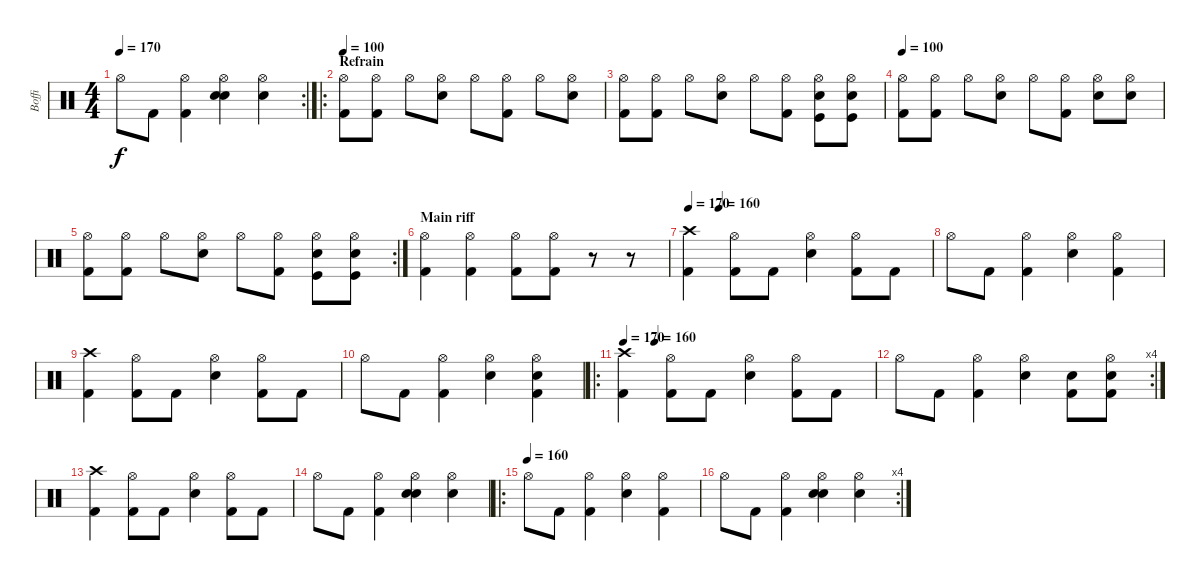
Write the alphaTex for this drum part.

\track ("Boffi" "Boffi") {instrument percussion}
\staff {score}
\articulation defaults
\rc 2
\ts (4 4)
\tempo 170
\clef neutral
\ks c "Hi-Hat (open)".8{dy f} "Kick (hit) 2".8
("Hi-Hat (open)" "Kick (hit) 2").4 ("Hi-Hat (open)" "Electric Snare (hit)" "Snare (hit) 2").4 ("Hi-Hat (open)" "Snare (hit) 2").4 |
\ro
\section ("" "Refrain")
\tempo 90
\tempo 100
("Hi-Hat (open)" "Kick (hit) 2").8 ("Hi-Hat (open)" "Kick (hit) 2").8 "Hi-Hat (open)".8 ("Hi-Hat (open)" "Electric Snare (hit)").8 "Hi-Hat (open)".8 ("Hi-Hat (open)" "Kick (hit) 2").8 "Hi-Hat (open)".8 ("Hi-Hat (open)" "Electric Snare (hit)").8 |
("Hi-Hat (open)" "Kick (hit) 2").8 ("Hi-Hat (open)" "Kick (hit) 2").8 "Hi-Hat (open)".8 ("Hi-Hat (open)" "Electric Snare (hit)").8 "Hi-Hat (open)".8 ("Hi-Hat (open)" "Kick (hit) 2").8 ("Hi-Hat (open)" "Electric Snare (hit)" "Kick (hit)").8 ("Hi-Hat (open)" "Electric Snare (hit)" "Kick (hit)").8 |
\tempo 100
("Hi-Hat (open)" "Kick (hit) 2").8 ("Hi-Hat (open)" "Kick (hit) 2").8 "Hi-Hat (open)".8 ("Hi-Hat (open)" "Electric Snare (hit)").8 "Hi-Hat (open)".8 ("Hi-Hat (open)" "Kick (hit) 2").8 ("Hi-Hat (open)" "Electric Snare (hit)").8 ("Hi-Hat (open)" "Electric Snare (hit)").8 |
\rc 2
("Hi-Hat (open)" "Kick (hit) 2").8 ("Hi-Hat (open)" "Kick (hit) 2").8 "Hi-Hat (open)".8 ("Hi-Hat (open)" "Electric Snare (hit)").8 "Hi-Hat (open)".8 ("Hi-Hat (open)" "Kick (hit) 2").8 ("Hi-Hat (open)" "Snare (hit) 2" "Kick (hit)").8 ("Hi-Hat (open)" "Snare (hit) 2" "Kick (hit)").8 |
\section ("" "Main riff")
("Hi-Hat (open)" "Kick (hit) 2").4 ("Hi-Hat (open)" "Kick (hit) 2").4 ("Hi-Hat (open)" "Kick (hit) 2").8 ("Hi-Hat (open)" "Kick (hit) 2").8 r.8 r.8 |
\tempo 170
\tempo (160 0.125)
("Crash high (hit)" "Kick (hit) 2").4 ("Hi-Hat (open)" "Kick (hit) 2").8 "Kick (hit) 2".8 ("Hi-Hat (open)" "Electric Snare (hit)").4 ("Hi-Hat (open)" "Kick (hit) 2").8 "Kick (hit) 2".8 |
"Hi-Hat (open)".8 "Kick (hit) 2".8 ("Hi-Hat (open)" "Kick (hit) 2").4 ("Hi-Hat (open)" "Electric Snare (hit)").4 ("Hi-Hat (open)" "Kick (hit) 2").4 |
("Crash high (hit)" "Kick (hit) 2").4 ("Hi-Hat (open)" "Kick (hit) 2").8 "Kick (hit) 2".8 ("Hi-Hat (open)" "Electric Snare (hit)").4 ("Hi-Hat (open)" "Kick (hit) 2").8 "Kick (hit) 2".8 |
"Hi-Hat (open)".8 "Kick (hit) 2".8 ("Hi-Hat (open)" "Kick (hit) 2").4 ("Hi-Hat (open)" "Snare (hit) 2").4 ("Hi-Hat (open)" "Snare (hit) 2" "Kick (hit) 2").4 |
\ro
\tempo 170
\tempo (160 0.125)
("Crash high (hit)" "Kick (hit) 2").4 ("Hi-Hat (open)" "Kick (hit) 2").8 "Kick (hit) 2".8 ("Hi-Hat (open)" "Electric Snare (hit)").4 ("Hi-Hat (open)" "Kick (hit) 2").8 "Kick (hit) 2".8 |
\rc 4 "Hi-Hat (open)".8 "Kick (hit) 2".8
("Hi-Hat (open)" "Kick (hit) 2").4 ("Hi-Hat (open)" "Electric Snare (hit)").4 ("Snare (hit) 2" "Kick (hit) 2").8 ("Hi-Hat (open)" "Snare (hit) 2" "Kick (hit) 2").8 |
("Crash high (hit)" "Kick (hit) 2").4 ("Hi-Hat (open)" "Kick (hit) 2").8 "Kick (hit) 2".8 ("Hi-Hat (open)" "Electric Snare (hit)").4 ("Hi-Hat (open)" "Kick (hit) 2").8 "Kick (hit) 2".8 |
"Hi-Hat (open)".8 "Kick (hit) 2".8 ("Hi-Hat (open)" "Kick (hit) 2").4 ("Hi-Hat (open)" "Electric Snare (hit)" "Snare (hit) 2").4 ("Hi-Hat (open)" "Snare (hit) 2").4 |
\ro
\tempo (160)
"Hi-Hat (open)".8 "Kick (hit) 2".8 ("Hi-Hat (open)" "Kick (hit) 2").4 ("Hi-Hat (open)" "Electric Snare (hit)").4 ("Hi-Hat (open)" "Kick (hit) 2").4 |
\rc 4 "Hi-Hat (open)".8 "Kick (hit) 2".8
("Hi-Hat (open)" "Kick (hit) 2").4 ("Hi-Hat (open)" "Electric Snare (hit)" "Snare (hit) 2").4 ("Hi-Hat (open)" "Snare (hit) 2").4
